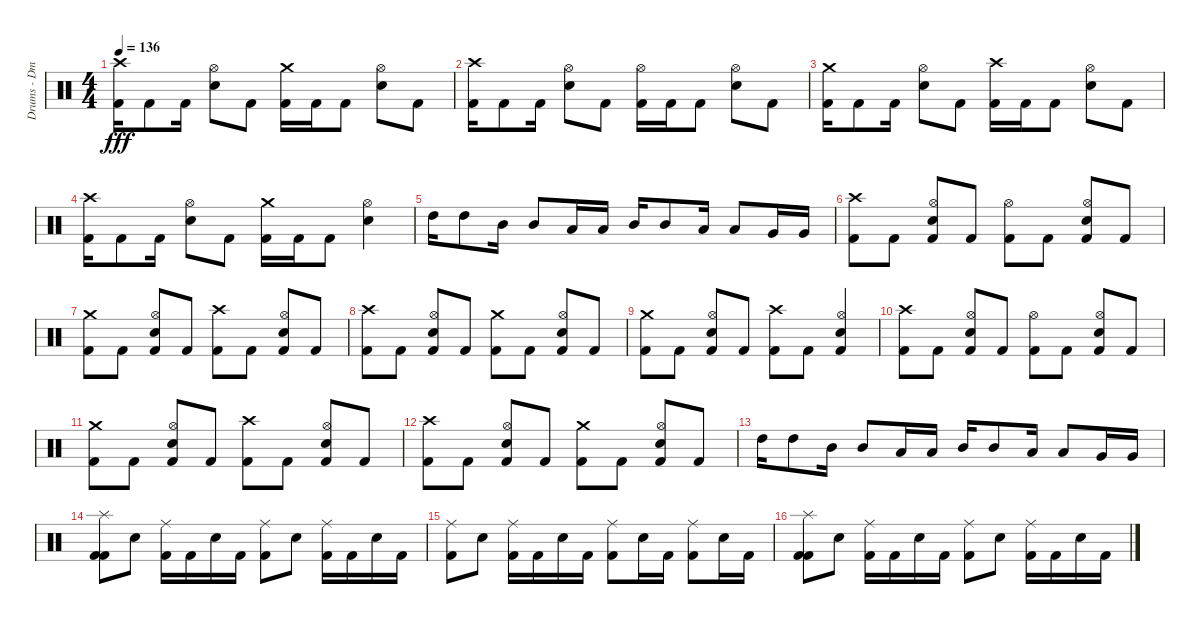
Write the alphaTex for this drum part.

\track ("Drums - Dmitriy Krivenkov" "Drums - Dm") {instrument percussion}
\staff {score}
\articulation defaults
\ts (4 4)
\tempo 136
\clef neutral
\ks c
("Crash high (hit)" "Kick (hit) 2").16{dy fff} "Kick (hit) 2".8 "Kick (hit) 2".16 ("Hi-Hat (open)" "Electric Snare (hit)").8 "Kick (hit) 2".8 ("Crash medium (hit)" "Kick (hit) 2").16 "Kick (hit) 2".16 "Kick (hit) 2".8 ("Hi-Hat (open)" "Electric Snare (hit)").8 "Kick (hit) 2".8 |
("Crash high (hit)" "Kick (hit) 2").16 "Kick (hit) 2".8 "Kick (hit) 2".16 ("Hi-Hat (open)" "Electric Snare (hit)").8 "Kick (hit) 2".8 ("Hi-Hat (open)" "Kick (hit) 2").16 "Kick (hit) 2".16 "Kick (hit) 2".8 ("Hi-Hat (open)" "Electric Snare (hit)").8 "Kick (hit) 2".8 |
("Kick (hit) 2" "Crash medium (hit)").16 "Kick (hit) 2".8 "Kick (hit) 2".16 ("Hi-Hat (open)" "Electric Snare (hit)").8 "Kick (hit) 2".8 ("Kick (hit) 2" "Crash high (hit)").16 "Kick (hit) 2".16 "Kick (hit) 2".8 ("Hi-Hat (open)" "Electric Snare (hit)").8 "Kick (hit) 2".8 |
("Kick (hit) 2" "Crash high (hit)").16 "Kick (hit) 2".8 "Kick (hit) 2".16 ("Electric Snare (hit)" "Hi-Hat (open)").8 "Kick (hit) 2".8 ("Kick (hit) 2" "Crash medium (hit)").16 "Kick (hit) 2".16 "Kick (hit) 2".8 ("Electric Snare (hit)" "Hi-Hat (open)").4 |
"High Tom (hit)".16 "High Tom (hit)".8 "Mid Tom (hit)".16 "Mid Tom (hit)".8 "Low Tom (hit)".16 "Low Tom (hit)".16 "Mid Tom (hit)".16 "Mid Tom (hit)".8 "Low Tom (hit)".16 "Low Tom (hit)".8 "Very Low Tom (hit)".16 "Very Low Tom (hit)".16 |
("Crash high (hit)" "Kick (hit) 2").8 "Kick (hit) 2".8 ("Hi-Hat (open)" "Kick (hit) 2" "Electric Snare (hit)").8 "Kick (hit) 2".8 ("Hi-Hat (open)" "Kick (hit) 2").8 "Kick (hit) 2".8 ("Hi-Hat (open)" "Kick (hit) 2" "Electric Snare (hit)").8 "Kick (hit) 2".8 |
("Kick (hit) 2" "Crash medium (hit)").8 "Kick (hit) 2".8 ("Electric Snare (hit)" "Kick (hit) 2" "Hi-Hat (open)").8 "Kick (hit) 2".8 ("Kick (hit) 2" "Crash high (hit)").8 "Kick (hit) 2".8 ("Electric Snare (hit)" "Kick (hit) 2" "Hi-Hat (open)").8 "Kick (hit) 2".8 |
("Crash high (hit)" "Kick (hit) 2").8 "Kick (hit) 2".8 ("Electric Snare (hit)" "Hi-Hat (open)" "Kick (hit) 2").8 "Kick (hit) 2".8 ("Crash medium (hit)" "Kick (hit) 2").8 "Kick (hit) 2".8 ("Electric Snare (hit)" "Hi-Hat (open)" "Kick (hit) 2").8 "Kick (hit) 2".8 |
("Crash medium (hit)" "Kick (hit) 2").8 "Kick (hit) 2".8 ("Hi-Hat (open)" "Electric Snare (hit)" "Kick (hit) 2").8 "Kick (hit) 2".8 ("Crash high (hit)" "Kick (hit) 2").8 "Kick (hit) 2".8 ("Hi-Hat (open)" "Electric Snare (hit)" "Kick (hit) 2").4 |
("Crash high (hit)" "Kick (hit) 2").8 "Kick (hit) 2".8 ("Kick (hit) 2" "Electric Snare (hit)" "Hi-Hat (open)").8 "Kick (hit) 2".8 ("Hi-Hat (open)" "Kick (hit) 2").8 "Kick (hit) 2".8 ("Electric Snare (hit)" "Kick (hit) 2" "Hi-Hat (open)").8 "Kick (hit) 2".8 |
("Kick (hit) 2" "Crash medium (hit)").8 "Kick (hit) 2".8 ("Electric Snare (hit)" "Hi-Hat (open)" "Kick (hit) 2").8 "Kick (hit) 2".8 ("Kick (hit) 2" "Crash high (hit)").8 "Kick (hit) 2".8 ("Electric Snare (hit)" "Hi-Hat (open)" "Kick (hit) 2").8 "Kick (hit) 2".8 |
("Kick (hit) 2" "Crash high (hit)").8 "Kick (hit) 2".8 ("Electric Snare (hit)" "Hi-Hat (open)" "Kick (hit) 2").8 "Kick (hit) 2".8 ("Crash medium (hit)" "Kick (hit) 2").8 "Kick (hit) 2".8 ("Electric Snare (hit)" "Hi-Hat (open)" "Kick (hit) 2").8 "Kick (hit) 2".8 |
"High Tom (hit)".16 "High Tom (hit)".8 "Mid Tom (hit)".16 "Mid Tom (hit)".8 "Low Tom (hit)".16 "Low Tom (hit)".16 "Mid Tom (hit)".16 "Mid Tom (hit)".8 "Low Tom (hit)".16 "Low Tom (hit)".8 "Very Low Tom (hit)".16 "Very Low Tom (hit)".16 |
("Splash (hit)" "Kick (hit) 2" "Kick (hit) 2").8 "Electric Snare (hit)".8 ("Kick (hit) 2" "Ride (middle)").16 "Kick (hit) 2".16 "Electric Snare (hit)".16 "Kick (hit) 2".16 ("Kick (hit) 2" "Ride (middle)").8 "Electric Snare (hit)".8 ("Ride (middle)" "Kick (hit) 2").16 "Kick (hit) 2".16 "Electric Snare (hit)".16 "Kick (hit) 2".16 |
("Ride (middle)" "Kick (hit) 2").8 "Electric Snare (hit)".8 ("Ride (middle)" "Kick (hit) 2").16 "Kick (hit) 2".16 "Electric Snare (hit)".16 "Kick (hit) 2".16 ("Kick (hit) 2" "Ride (middle)").8 "Electric Snare (hit)".16 "Kick (hit) 2".16 ("Ride (middle)" "Kick (hit) 2").8 "Electric Snare (hit)".16 "Kick (hit) 2".16 |
("Kick (hit) 2" "Kick (hit) 2" "Splash (hit)").8 "Electric Snare (hit)".8 ("Ride (middle)" "Kick (hit) 2").16 "Kick (hit) 2".16 "Electric Snare (hit)".16 "Kick (hit) 2".16 ("Ride (middle)" "Kick (hit) 2").8 "Electric Snare (hit)".8 ("Ride (middle)" "Kick (hit) 2").16 "Kick (hit) 2".16 "Electric Snare (hit)".16 "Kick (hit) 2".16
